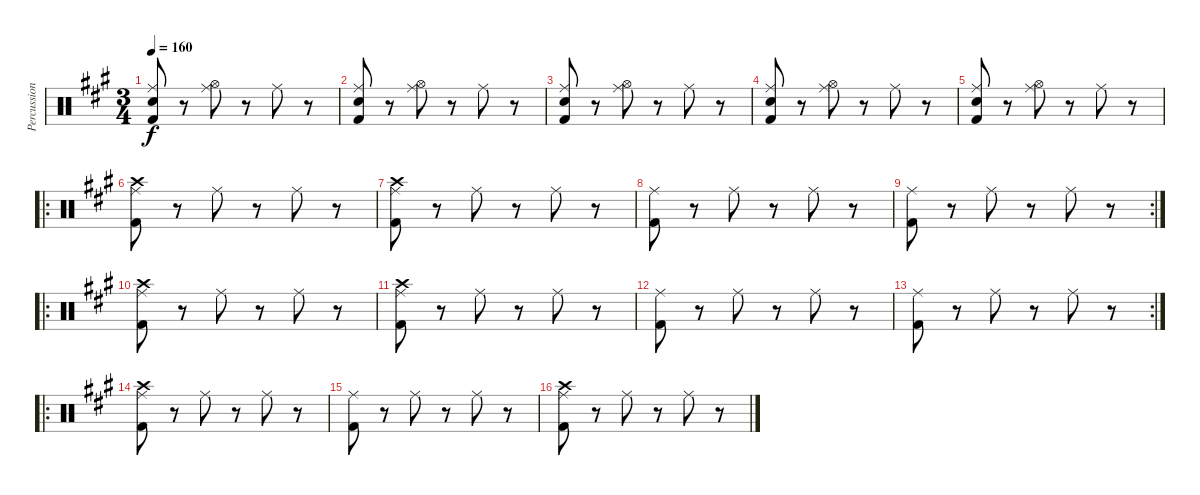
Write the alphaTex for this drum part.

\track ("Percussioni" "Percussion") {instrument percussion}
\staff {score}
\articulation defaults
\ts (3 4)
\tempo 160
\clef neutral
\ks a
("Electric Snare (hit)" "Ride (middle)" "Kick (hit) 2").8{dy f} r.8 ("Hi-Hat (open)" "Ride (middle)").8 r.8 "Ride (middle)".8 r.8 |
("Electric Snare (hit)" "Ride (middle)" "Kick (hit) 2").8 r.8 ("Hi-Hat (open)" "Ride (middle)").8 r.8 "Ride (middle)".8 r.8 |
("Electric Snare (hit)" "Ride (middle)" "Kick (hit) 2").8 r.8 ("Hi-Hat (open)" "Ride (middle)").8 r.8 "Ride (middle)".8 r.8 |
("Electric Snare (hit)" "Ride (middle)" "Kick (hit) 2").8 r.8 ("Hi-Hat (open)" "Ride (middle)").8 r.8 "Ride (middle)".8 r.8 |
("Electric Snare (hit)" "Ride (middle)" "Kick (hit) 2").8 r.8 ("Hi-Hat (open)" "Ride (middle)").8 r.8 "Ride (middle)".8 r.8 |
\ro
("Crash high (hit)" "Ride (middle)" "Kick (hit) 2").8 r.8 "Ride (middle)".8 r.8 "Ride (middle)".8 r.8 |
("Crash high (hit)" "Ride (middle)" "Kick (hit) 2").8 r.8 "Ride (middle)".8 r.8 "Ride (middle)".8 r.8 |
("Ride (middle)" "Kick (hit) 2").8 r.8 "Ride (middle)".8 r.8 "Ride (middle)".8 r.8 |
\rc 2
("Ride (middle)" "Kick (hit) 2").8 r.8 "Ride (middle)".8 r.8 "Ride (middle)".8 r.8 |
\ro
("Crash high (hit)" "Ride (middle)" "Kick (hit) 2").8 r.8 "Ride (middle)".8 r.8 "Ride (middle)".8 r.8 |
("Crash high (hit)" "Ride (middle)" "Kick (hit) 2").8 r.8 "Ride (middle)".8 r.8 "Ride (middle)".8 r.8 |
("Ride (middle)" "Kick (hit) 2").8 r.8 "Ride (middle)".8 r.8 "Ride (middle)".8 r.8 |
\rc 2
("Ride (middle)" "Kick (hit) 2").8 r.8 "Ride (middle)".8 r.8 "Ride (middle)".8 r.8 |
\ro
("Crash high (hit)" "Ride (middle)" "Kick (hit) 2").8 r.8 "Ride (middle)".8 r.8 "Ride (middle)".8 r.8 |
("Ride (middle)" "Kick (hit) 2").8 r.8 "Ride (middle)".8 r.8 "Ride (middle)".8 r.8 |
("Crash high (hit)" "Ride (middle)" "Kick (hit) 2").8 r.8 "Ride (middle)".8 r.8 "Ride (middle)".8 r.8
